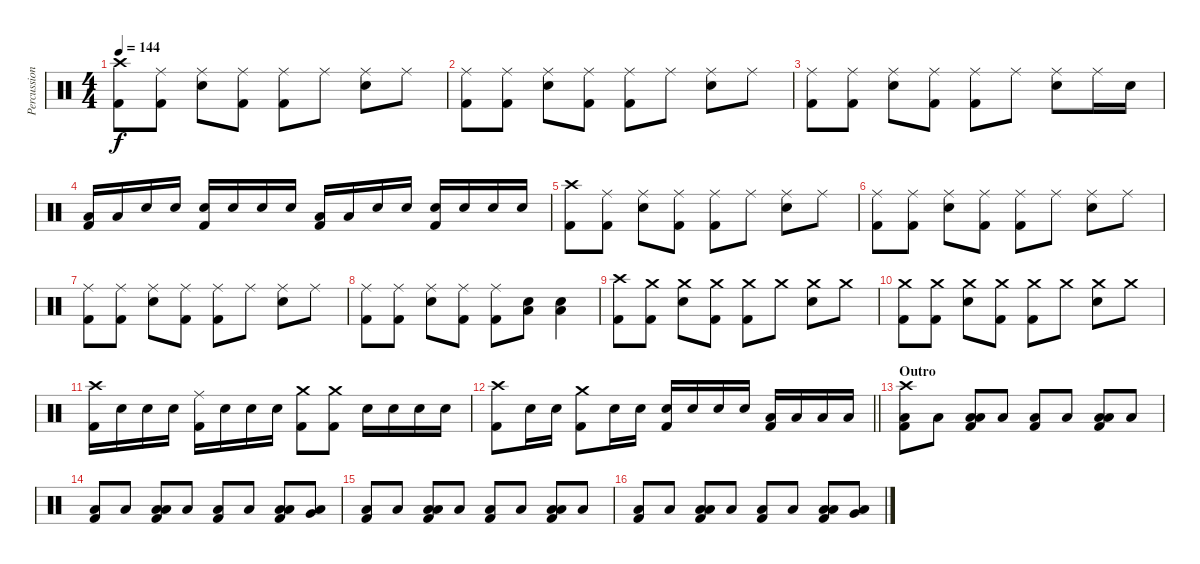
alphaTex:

\track ("Percussion" "Percussion") {instrument percussion}
\staff {score}
\articulation defaults
\ts (4 4)
\tempo 144
\clef neutral
\ks c
("Crash high (hit)" "Kick (hit) 2").8{dy f} ("Ride (middle)" "Kick (hit) 2").8 ("Ride (middle)" "Electric Snare (hit)").8 ("Ride (middle)" "Kick (hit) 2").8 ("Ride (middle)" "Kick (hit) 2").8 "Ride (middle)".8 ("Ride (middle)" "Electric Snare (hit)").8 "Ride (middle)".8 |
("Ride (middle)" "Kick (hit) 2").8 ("Ride (middle)" "Kick (hit) 2").8 ("Ride (middle)" "Electric Snare (hit)").8 ("Ride (middle)" "Kick (hit) 2").8 ("Ride (middle)" "Kick (hit) 2").8 "Ride (middle)".8 ("Ride (middle)" "Electric Snare (hit)").8 "Ride (middle)".8 |
("Ride (middle)" "Kick (hit) 2").8 ("Ride (middle)" "Kick (hit) 2").8 ("Ride (middle)" "Electric Snare (hit)").8 ("Ride (middle)" "Kick (hit) 2").8 ("Ride (middle)" "Kick (hit) 2").8 "Ride (middle)".8 ("Ride (middle)" "Electric Snare (hit)").8 "Ride (middle)".16 "Electric Snare (hit)".16 |
("Low Tom (hit)" "Kick (hit) 2").16 "Low Tom (hit)".16 "Electric Snare (hit)".16 "Electric Snare (hit)".16 ("Electric Snare (hit)" "Kick (hit) 2").16 "Electric Snare (hit)".16 "Electric Snare (hit)".16 "Electric Snare (hit)".16 ("Low Tom (hit)" "Kick (hit) 2").16 "Low Tom (hit)".16 "Electric Snare (hit)".16 "Electric Snare (hit)".16 ("Electric Snare (hit)" "Kick (hit) 2").16 "Electric Snare (hit)".16 "Electric Snare (hit)".16 "Electric Snare (hit)".16 |
("Crash high (hit)" "Kick (hit) 2").8 ("Ride (middle)" "Kick (hit) 2").8 ("Ride (middle)" "Electric Snare (hit)").8 ("Ride (middle)" "Kick (hit) 2").8 ("Ride (middle)" "Kick (hit) 2").8 "Ride (middle)".8 ("Ride (middle)" "Electric Snare (hit)").8 "Ride (middle)".8 |
("Ride (middle)" "Kick (hit) 2").8 ("Ride (middle)" "Kick (hit) 2").8 ("Ride (middle)" "Electric Snare (hit)").8 ("Ride (middle)" "Kick (hit) 2").8 ("Ride (middle)" "Kick (hit) 2").8 "Ride (middle)".8 ("Ride (middle)" "Electric Snare (hit)").8 "Ride (middle)".8 |
("Ride (middle)" "Kick (hit) 2").8 ("Ride (middle)" "Kick (hit) 2").8 ("Ride (middle)" "Electric Snare (hit)").8 ("Ride (middle)" "Kick (hit) 2").8 ("Ride (middle)" "Kick (hit) 2").8 "Ride (middle)".8 ("Ride (middle)" "Electric Snare (hit)").8 "Ride (middle)".8 |
("Ride (middle)" "Kick (hit) 2").8 ("Ride (middle)" "Kick (hit) 2").8 ("Ride (middle)" "Electric Snare (hit)").8 ("Ride (middle)" "Kick (hit) 2").8 ("Ride (middle)" "Kick (hit) 2").8 ("Low Floor Tom (hit)" "Electric Snare (hit)").8 ("Low Floor Tom (hit)" "Electric Snare (hit)").4 |
("Crash high (hit)" "Kick (hit) 2").8 ("Crash medium (hit)" "Kick (hit) 2").8 ("Crash medium (hit)" "Electric Snare (hit)").8 ("Crash medium (hit)" "Kick (hit) 2").8 ("Crash medium (hit)" "Kick (hit) 2").8 "Crash medium (hit)".8 ("Crash medium (hit)" "Electric Snare (hit)").8 "Crash medium (hit)".8 |
("Crash medium (hit)" "Kick (hit) 2").8 ("Crash medium (hit)" "Kick (hit) 2").8 ("Crash medium (hit)" "Electric Snare (hit)").8 ("Crash medium (hit)" "Kick (hit) 2").8 ("Crash medium (hit)" "Kick (hit) 2").8 "Crash medium (hit)".8 ("Crash medium (hit)" "Electric Snare (hit)").8 "Crash medium (hit)".8 |
("Crash high (hit)" "Kick (hit) 2").16 "Electric Snare (hit)".16 "Electric Snare (hit)".16 "Electric Snare (hit)".16 ("Ride (middle)" "Kick (hit) 2").16 "Electric Snare (hit)".16 "Electric Snare (hit)".16 "Electric Snare (hit)".16 ("Crash medium (hit)" "Kick (hit) 2").8 ("Crash medium (hit)" "Kick (hit) 2").8 "Electric Snare (hit)".16 "Electric Snare (hit)".16 "Electric Snare (hit)".16 "Electric Snare (hit)".16 |
\barLineRight lightlight
("Crash high (hit)" "Kick (hit) 2").8 "Electric Snare (hit)".16 "Electric Snare (hit)".16 ("Crash medium (hit)" "Kick (hit) 2").8 "Electric Snare (hit)".16 "Electric Snare (hit)".16 ("Electric Snare (hit)" "Kick (hit) 2").16 "Electric Snare (hit)".16 "Electric Snare (hit)".16 "Electric Snare (hit)".16 ("Low Tom (hit)" "Kick (hit) 2").16 "Low Tom (hit)".16 "Low Tom (hit)".16 "Low Tom (hit)".16 |
\section ("" "Outro")
("Crash high (hit)" "Low Floor Tom (hit)" "Kick (hit) 2").8 "Low Floor Tom (hit)".8 ("Low Tom (hit)" "Low Floor Tom (hit)" "Kick (hit) 2").8 "Low Floor Tom (hit)".8 ("Low Floor Tom (hit)" "Kick (hit) 2").8 "Low Floor Tom (hit)".8 ("Low Tom (hit)" "Low Floor Tom (hit)" "Kick (hit) 2").8 "Low Floor Tom (hit)".8 |
("Low Floor Tom (hit)" "Kick (hit) 2").8 "Low Floor Tom (hit)".8 ("Low Tom (hit)" "Low Floor Tom (hit)" "Kick (hit) 2").8 "Low Floor Tom (hit)".8 ("Low Floor Tom (hit)" "Kick (hit) 2").8 "Low Floor Tom (hit)".8 ("Low Tom (hit)" "Low Floor Tom (hit)" "Kick (hit) 2").8 ("Very Low Tom (hit)" "Low Floor Tom (hit)").8 |
("Low Floor Tom (hit)" "Kick (hit) 2").8 "Low Floor Tom (hit)".8 ("Low Tom (hit)" "Low Floor Tom (hit)" "Kick (hit) 2").8 "Low Floor Tom (hit)".8 ("Low Floor Tom (hit)" "Kick (hit) 2").8 "Low Floor Tom (hit)".8 ("Low Tom (hit)" "Low Floor Tom (hit)" "Kick (hit) 2").8 "Low Floor Tom (hit)".8 |
("Low Floor Tom (hit)" "Kick (hit) 2").8 "Low Floor Tom (hit)".8 ("Low Tom (hit)" "Low Floor Tom (hit)" "Kick (hit) 2").8 "Low Floor Tom (hit)".8 ("Low Floor Tom (hit)" "Kick (hit) 2").8 "Low Floor Tom (hit)".8 ("Low Tom (hit)" "Low Floor Tom (hit)" "Kick (hit) 2").8 ("Very Low Tom (hit)" "Low Floor Tom (hit)").8
